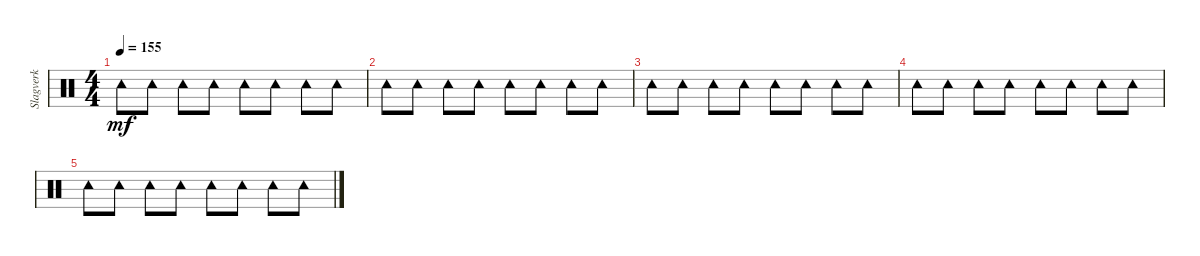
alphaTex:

\track ("Slagverk" "Slagverk") {instrument percussion}
\staff {score}
\articulation defaults
\ts (4 4)
\tempo 155
\clef neutral
\ks c "Tambourine (hit)".8{dy mf} "Tambourine (hit)".8 "Tambourine (hit)".8 "Tambourine (hit)".8 "Tambourine (hit)".8 "Tambourine (hit)".8 "Tambourine (hit)".8 "Tambourine (hit)".8
|
"Tambourine (hit)".8 "Tambourine (hit)".8 "Tambourine (hit)".8 "Tambourine (hit)".8 "Tambourine (hit)".8 "Tambourine (hit)".8 "Tambourine (hit)".8 "Tambourine (hit)".8 |
"Tambourine (hit)".8 "Tambourine (hit)".8 "Tambourine (hit)".8 "Tambourine (hit)".8 "Tambourine (hit)".8 "Tambourine (hit)".8 "Tambourine (hit)".8 "Tambourine (hit)".8 |
"Tambourine (hit)".8 "Tambourine (hit)".8 "Tambourine (hit)".8 "Tambourine (hit)".8 "Tambourine (hit)".8 "Tambourine (hit)".8 "Tambourine (hit)".8 "Tambourine (hit)".8 |
"Tambourine (hit)".8 "Tambourine (hit)".8 "Tambourine (hit)".8 "Tambourine (hit)".8 "Tambourine (hit)".8 "Tambourine (hit)".8 "Tambourine (hit)".8 "Tambourine (hit)".8
